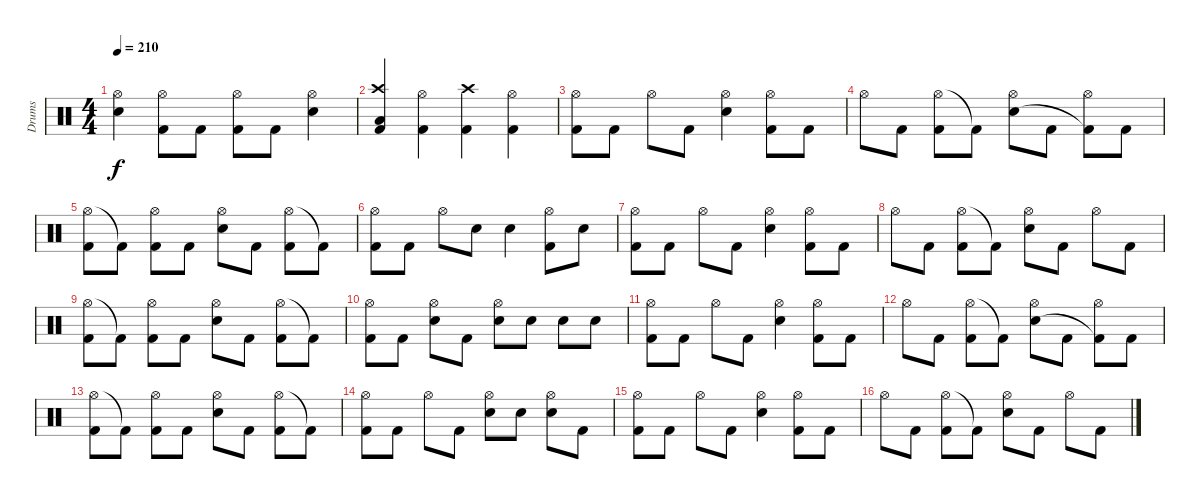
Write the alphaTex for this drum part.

\track ("Drums" "Drums") {instrument percussion}
\staff {score}
\articulation defaults
\ts (4 4)
\tempo 210
\clef neutral
\ks c
("Hi-Hat (open)" "Electric Snare (hit)").4{dy f} ("Hi-Hat (open)" "Kick (hit) 2").8 "Kick (hit) 2".8 ("Hi-Hat (open)" "Kick (hit) 2").8 "Kick (hit) 2".8 ("Hi-Hat (open)" "Electric Snare (hit)").4 |
("Crash high (hit)" "Low Tom (hit)" "Kick (hit) 2").4 ("Hi-Hat (open)" "Kick (hit) 2").4 ("Crash high (hit)" "Kick (hit) 2").4 ("Hi-Hat (open)" "Kick (hit) 2").4 |
("Hi-Hat (open)" "Kick (hit) 2").8 "Kick (hit) 2".8 "Hi-Hat (open)".8 "Kick (hit) 2".8 ("Hi-Hat (open)" "Electric Snare (hit)").4 ("Hi-Hat (open)" "Kick (hit) 2").8 "Kick (hit) 2".8 |
"Hi-Hat (open)".8 "Kick (hit) 2".8 ("Hi-Hat (open)" "Kick (hit) 2").8 "Kick (hit) 2"{t}.8 ("Hi-Hat (open)" "Electric Snare (hit)").8 "Kick (hit) 2".8 ("Hi-Hat (open)" "Kick (hit) 2"{t}).8 "Kick (hit) 2".8 |
("Hi-Hat (open)" "Kick (hit) 2").8 "Kick (hit) 2"{t}.8 ("Hi-Hat (open)" "Kick (hit) 2").8 "Kick (hit) 2".8 ("Hi-Hat (open)" "Electric Snare (hit)").8 "Kick (hit) 2".8 ("Hi-Hat (open)" "Kick (hit) 2").8 "Kick (hit) 2"{t}.8 |
("Hi-Hat (open)" "Kick (hit) 2").8 "Kick (hit) 2".8 "Hi-Hat (open)".8 "Electric Snare (hit)".8 "Electric Snare (hit)".4 ("Hi-Hat (open)" "Kick (hit) 2").8 "Electric Snare (hit)".8 |
("Hi-Hat (open)" "Kick (hit) 2").8 "Kick (hit) 2".8 "Hi-Hat (open)".8 "Kick (hit) 2".8 ("Hi-Hat (open)" "Electric Snare (hit)").4 ("Hi-Hat (open)" "Kick (hit) 2").8 "Kick (hit) 2".8 |
"Hi-Hat (open)".8 "Kick (hit) 2".8 ("Hi-Hat (open)" "Kick (hit) 2").8 "Kick (hit) 2"{t}.8 ("Hi-Hat (open)" "Electric Snare (hit)").8 "Kick (hit) 2".8 "Hi-Hat (open)".8 "Kick (hit) 2".8 |
("Hi-Hat (open)" "Kick (hit) 2").8 "Kick (hit) 2"{t}.8 ("Hi-Hat (open)" "Kick (hit) 2").8 "Kick (hit) 2".8 ("Hi-Hat (open)" "Electric Snare (hit)").8 "Kick (hit) 2".8 ("Hi-Hat (open)" "Kick (hit) 2").8 "Kick (hit) 2"{t}.8 |
("Hi-Hat (open)" "Kick (hit) 2").8 "Kick (hit) 2".8 ("Hi-Hat (open)" "Electric Snare (hit)").8 "Kick (hit) 2".8 ("Hi-Hat (open)" "Electric Snare (hit)").8 "Electric Snare (hit)".8 "Electric Snare (hit)".8 "Electric Snare (hit)".8 |
("Hi-Hat (open)" "Kick (hit) 2").8 "Kick (hit) 2".8 "Hi-Hat (open)".8 "Kick (hit) 2".8 ("Hi-Hat (open)" "Electric Snare (hit)").4 ("Hi-Hat (open)" "Kick (hit) 2").8 "Kick (hit) 2".8 |
"Hi-Hat (open)".8 "Kick (hit) 2".8 ("Hi-Hat (open)" "Kick (hit) 2").8 "Kick (hit) 2"{t}.8 ("Hi-Hat (open)" "Electric Snare (hit)").8 "Kick (hit) 2".8 ("Hi-Hat (open)" "Kick (hit) 2"{t}).8 "Kick (hit) 2".8 |
("Hi-Hat (open)" "Kick (hit) 2").8 "Kick (hit) 2"{t}.8 ("Hi-Hat (open)" "Kick (hit) 2").8 "Kick (hit) 2".8 ("Hi-Hat (open)" "Electric Snare (hit)").8 "Kick (hit) 2".8 ("Hi-Hat (open)" "Kick (hit) 2").8 "Kick (hit) 2"{t}.8 |
("Hi-Hat (open)" "Kick (hit) 2").8 "Kick (hit) 2".8 "Hi-Hat (open)".8 "Kick (hit) 2".8 ("Hi-Hat (open)" "Electric Snare (hit)").8 "Electric Snare (hit)".8 ("Hi-Hat (open)" "Electric Snare (hit)").8 "Kick (hit) 2".8 |
("Hi-Hat (open)" "Kick (hit) 2").8 "Kick (hit) 2".8 "Hi-Hat (open)".8 "Kick (hit) 2".8 ("Hi-Hat (open)" "Electric Snare (hit)").4 ("Hi-Hat (open)" "Kick (hit) 2").8 "Kick (hit) 2".8 |
"Hi-Hat (open)".8 "Kick (hit) 2".8 ("Hi-Hat (open)" "Kick (hit) 2").8 "Kick (hit) 2"{t}.8 ("Hi-Hat (open)" "Electric Snare (hit)").8 "Kick (hit) 2".8 "Hi-Hat (open)".8 "Kick (hit) 2".8
